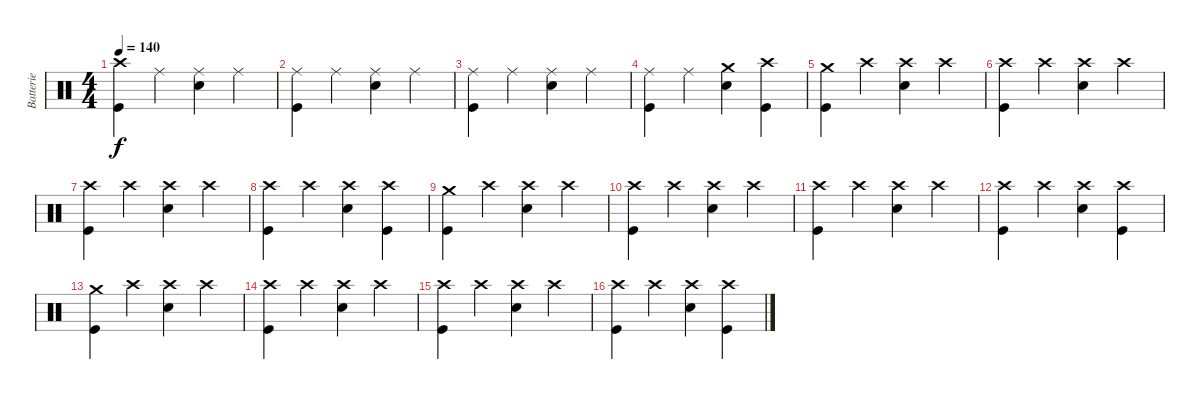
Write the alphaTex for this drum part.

\track ("Batterie" "Batterie") {instrument percussion}
\staff {score}
\articulation defaults
\ts (4 4)
\tempo 140
\clef neutral
\ks c
("Crash high (hit)" "Kick (hit)").4{dy f} "Ride (middle)".4 ("Ride (middle)" "Electric Snare (hit)").4 "Ride (middle)".4 |
("Ride (middle)" "Kick (hit)").4 "Ride (middle)".4 ("Ride (middle)" "Electric Snare (hit)").4 "Ride (middle)".4 |
("Ride (middle)" "Kick (hit)").4 "Ride (middle)".4 ("Ride (middle)" "Electric Snare (hit)").4 "Ride (middle)".4 |
("Ride (middle)" "Kick (hit)").4 "Ride (middle)".4 ("Crash medium (hit)" "Electric Snare (hit)").4 ("Crash high (hit)" "Kick (hit)").4 |
("Crash medium (hit)" "Kick (hit)").4 "Crash high (hit)".4 ("Crash high (hit)" "Electric Snare (hit)").4 "Crash high (hit)".4 |
("Crash high (hit)" "Kick (hit)").4 "Crash high (hit)".4 ("Crash high (hit)" "Electric Snare (hit)").4 "Crash high (hit)".4 |
("Crash high (hit)" "Kick (hit)").4 "Crash high (hit)".4 ("Crash high (hit)" "Electric Snare (hit)").4 "Crash high (hit)".4 |
("Crash high (hit)" "Kick (hit)").4 "Crash high (hit)".4 ("Crash high (hit)" "Electric Snare (hit)").4 ("Crash high (hit)" "Kick (hit)").4 |
("Crash medium (hit)" "Kick (hit)").4 "Crash high (hit)".4 ("Crash high (hit)" "Electric Snare (hit)").4 "Crash high (hit)".4 |
("Crash high (hit)" "Kick (hit)").4 "Crash high (hit)".4 ("Crash high (hit)" "Electric Snare (hit)").4 "Crash high (hit)".4 |
("Crash high (hit)" "Kick (hit)").4 "Crash high (hit)".4 ("Crash high (hit)" "Electric Snare (hit)").4 "Crash high (hit)".4 |
("Crash high (hit)" "Kick (hit)").4 "Crash high (hit)".4 ("Crash high (hit)" "Electric Snare (hit)").4 ("Crash high (hit)" "Kick (hit)").4 |
("Crash medium (hit)" "Kick (hit)").4 "Crash high (hit)".4 ("Crash high (hit)" "Electric Snare (hit)").4 "Crash high (hit)".4 |
("Crash high (hit)" "Kick (hit)").4 "Crash high (hit)".4 ("Crash high (hit)" "Electric Snare (hit)").4 "Crash high (hit)".4 |
("Crash high (hit)" "Kick (hit)").4 "Crash high (hit)".4 ("Crash high (hit)" "Electric Snare (hit)").4 "Crash high (hit)".4 |
("Crash high (hit)" "Kick (hit)").4 "Crash high (hit)".4 ("Crash high (hit)" "Electric Snare (hit)").4 ("Crash high (hit)" "Kick (hit)").4
